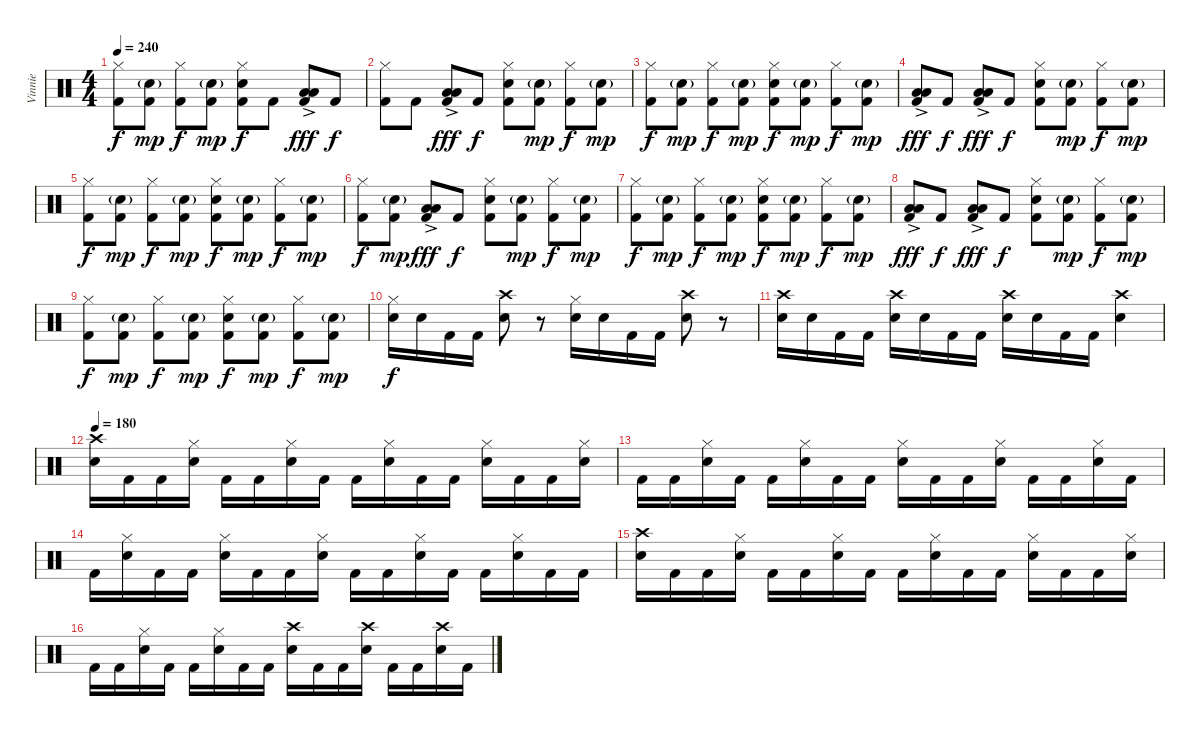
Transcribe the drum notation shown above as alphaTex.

\track ("Vinnie" "Vinnie") {instrument percussion}
\staff {score}
\articulation defaults
\ts (4 4)
\tempo 240
\clef neutral
\ks c
("Hi-Hat (closed)" "Kick (hit) 2").8{dy f} ("Electric Snare (hit)"{g} "Kick (hit) 2").8{dy mp} ("Hi-Hat (closed)" "Kick (hit) 2").8{dy f} ("Electric Snare (hit)"{g} "Kick (hit) 2").8{dy mp} ("Hi-Hat (closed)" "Electric Snare (hit)" "Kick (hit) 2").8{dy f} "Kick (hit) 2".8 ("Low Tom (hit)"{ac} "Low Tom (hit)"{ac} "Kick (hit) 2").8{dy fff} "Kick (hit) 2".8{dy f} |
("Hi-Hat (closed)" "Kick (hit) 2").8 "Kick (hit) 2".8 ("Low Tom (hit)"{ac} "Low Tom (hit)"{ac} "Kick (hit) 2").8{dy fff} "Kick (hit) 2".8{dy f} ("Hi-Hat (closed)" "Electric Snare (hit)" "Kick (hit) 2").8 ("Electric Snare (hit)"{g} "Kick (hit) 2").8{dy mp} ("Hi-Hat (closed)" "Kick (hit) 2").8{dy f} ("Electric Snare (hit)"{g} "Kick (hit) 2").8{dy mp} |
("Hi-Hat (closed)" "Kick (hit) 2").8{dy f} ("Electric Snare (hit)"{g} "Kick (hit) 2").8{dy mp} ("Hi-Hat (closed)" "Kick (hit) 2").8{dy f} ("Electric Snare (hit)"{g} "Kick (hit) 2").8{dy mp} ("Hi-Hat (closed)" "Electric Snare (hit)" "Kick (hit) 2").8{dy f} ("Electric Snare (hit)"{g} "Kick (hit) 2").8{dy mp} ("Hi-Hat (closed)" "Kick (hit) 2").8{dy f} ("Electric Snare (hit)"{g} "Kick (hit) 2").8{dy mp} |
("Low Tom (hit)"{ac} "Low Tom (hit)"{ac} "Kick (hit) 2").8{dy fff} "Kick (hit) 2".8{dy f} ("Low Tom (hit)"{ac} "Low Tom (hit)"{ac} "Kick (hit) 2").8{dy fff} "Kick (hit) 2".8{dy f} ("Hi-Hat (closed)" "Electric Snare (hit)" "Kick (hit) 2").8 ("Electric Snare (hit)"{g} "Kick (hit) 2").8{dy mp} ("Hi-Hat (closed)" "Kick (hit) 2").8{dy f} ("Electric Snare (hit)"{g} "Kick (hit) 2").8{dy mp} |
("Hi-Hat (closed)" "Kick (hit) 2").8{dy f} ("Electric Snare (hit)"{g} "Kick (hit) 2").8{dy mp} ("Hi-Hat (closed)" "Kick (hit) 2").8{dy f} ("Electric Snare (hit)"{g} "Kick (hit) 2").8{dy mp} ("Hi-Hat (closed)" "Electric Snare (hit)" "Kick (hit) 2").8{dy f} ("Electric Snare (hit)"{g} "Kick (hit) 2").8{dy mp} ("Hi-Hat (closed)" "Kick (hit) 2").8{dy f} ("Electric Snare (hit)"{g} "Kick (hit) 2").8{dy mp} |
("Hi-Hat (closed)" "Kick (hit) 2").8{dy f} ("Electric Snare (hit)"{g} "Kick (hit) 2").8{dy mp} ("Low Tom (hit)"{ac} "Low Tom (hit)"{ac} "Kick (hit) 2").8{dy fff} "Kick (hit) 2".8{dy f} ("Hi-Hat (closed)" "Electric Snare (hit)" "Kick (hit) 2").8 ("Electric Snare (hit)"{g} "Kick (hit) 2").8{dy mp} ("Hi-Hat (closed)" "Kick (hit) 2").8{dy f} ("Electric Snare (hit)"{g} "Kick (hit) 2").8{dy mp} |
("Hi-Hat (closed)" "Kick (hit) 2").8{dy f} ("Electric Snare (hit)"{g} "Kick (hit) 2").8{dy mp} ("Hi-Hat (closed)" "Kick (hit) 2").8{dy f} ("Electric Snare (hit)"{g} "Kick (hit) 2").8{dy mp} ("Hi-Hat (closed)" "Electric Snare (hit)" "Kick (hit) 2").8{dy f} ("Electric Snare (hit)"{g} "Kick (hit) 2").8{dy mp} ("Hi-Hat (closed)" "Kick (hit) 2").8{dy f} ("Electric Snare (hit)"{g} "Kick (hit) 2").8{dy mp} |
("Low Tom (hit)"{ac} "Low Tom (hit)"{ac} "Kick (hit) 2").8{dy fff} "Kick (hit) 2".8{dy f} ("Low Tom (hit)"{ac} "Low Tom (hit)"{ac} "Kick (hit) 2").8{dy fff} "Kick (hit) 2".8{dy f} ("Hi-Hat (closed)" "Electric Snare (hit)" "Kick (hit) 2").8 ("Electric Snare (hit)"{g} "Kick (hit) 2").8{dy mp} ("Hi-Hat (closed)" "Kick (hit) 2").8{dy f} ("Electric Snare (hit)"{g} "Kick (hit) 2").8{dy mp} |
("Hi-Hat (closed)" "Kick (hit) 2").8{dy f} ("Electric Snare (hit)"{g} "Kick (hit) 2").8{dy mp} ("Hi-Hat (closed)" "Kick (hit) 2").8{dy f} ("Electric Snare (hit)"{g} "Kick (hit) 2").8{dy mp} ("Hi-Hat (closed)" "Electric Snare (hit)" "Kick (hit) 2").8{dy f} ("Electric Snare (hit)"{g} "Kick (hit) 2").8{dy mp} ("Hi-Hat (closed)" "Kick (hit) 2").8{dy f} ("Electric Snare (hit)"{g} "Kick (hit) 2").8{dy mp} |
("Hi-Hat (closed)" "Electric Snare (hit)").16{dy f} "Electric Snare (hit)".16 "Kick (hit) 2".16 "Kick (hit) 2".16 ("Crash high (hit)" "Electric Snare (hit)").8 r.8 ("Hi-Hat (closed)" "Electric Snare (hit)").16 "Electric Snare (hit)".16 "Kick (hit) 2".16 "Kick (hit) 2".16 ("Crash high (hit)" "Electric Snare (hit)").8 r.8 |
("Crash high (hit)" "Electric Snare (hit)").16 "Electric Snare (hit)".16 "Kick (hit) 2".16 "Kick (hit) 2".16 ("Crash high (hit)" "Electric Snare (hit)").16 "Electric Snare (hit)".16 "Kick (hit) 2".16 "Kick (hit) 2".16 ("Crash high (hit)" "Electric Snare (hit)").16 "Electric Snare (hit)".16 "Kick (hit) 2".16 "Kick (hit) 2".16 ("Crash high (hit)" "Electric Snare (hit)").4 |
\tempo 180
("Crash high (hit)" "Electric Snare (hit)").16 "Kick (hit) 2".16 "Kick (hit) 2".16 ("Hi-Hat (closed)" "Electric Snare (hit)").16 "Kick (hit) 2".16 "Kick (hit) 2".16 ("Hi-Hat (closed)" "Electric Snare (hit)").16 "Kick (hit) 2".16 "Kick (hit) 2".16 ("Hi-Hat (closed)" "Electric Snare (hit)").16 "Kick (hit) 2".16 "Kick (hit) 2".16 ("Hi-Hat (closed)" "Electric Snare (hit)").16 "Kick (hit) 2".16 "Kick (hit) 2".16 ("Hi-Hat (closed)" "Electric Snare (hit)").16 |
"Kick (hit) 2".16 "Kick (hit) 2".16 ("Hi-Hat (closed)" "Electric Snare (hit)").16 "Kick (hit) 2".16 "Kick (hit) 2".16 ("Hi-Hat (closed)" "Electric Snare (hit)").16 "Kick (hit) 2".16 "Kick (hit) 2".16 ("Hi-Hat (closed)" "Electric Snare (hit)").16 "Kick (hit) 2".16 "Kick (hit) 2".16 ("Hi-Hat (closed)" "Electric Snare (hit)").16 "Kick (hit) 2".16 "Kick (hit) 2".16 ("Hi-Hat (closed)" "Electric Snare (hit)").16 "Kick (hit) 2".16 |
"Kick (hit) 2".16 ("Hi-Hat (closed)" "Electric Snare (hit)").16 "Kick (hit) 2".16 "Kick (hit) 2".16 ("Hi-Hat (closed)" "Electric Snare (hit)").16 "Kick (hit) 2".16 "Kick (hit) 2".16 ("Hi-Hat (closed)" "Electric Snare (hit)").16 "Kick (hit) 2".16 "Kick (hit) 2".16 ("Hi-Hat (closed)" "Electric Snare (hit)").16 "Kick (hit) 2".16 "Kick (hit) 2".16 ("Hi-Hat (closed)" "Electric Snare (hit)").16 "Kick (hit) 2".16 "Kick (hit) 2".16 |
("Crash high (hit)" "Electric Snare (hit)").16 "Kick (hit) 2".16 "Kick (hit) 2".16 ("Hi-Hat (closed)" "Electric Snare (hit)").16 "Kick (hit) 2".16 "Kick (hit) 2".16 ("Hi-Hat (closed)" "Electric Snare (hit)").16 "Kick (hit) 2".16 "Kick (hit) 2".16 ("Hi-Hat (closed)" "Electric Snare (hit)").16 "Kick (hit) 2".16 "Kick (hit) 2".16 ("Hi-Hat (closed)" "Electric Snare (hit)").16 "Kick (hit) 2".16 "Kick (hit) 2".16 ("Hi-Hat (closed)" "Electric Snare (hit)").16 |
"Kick (hit) 2".16 "Kick (hit) 2".16 ("Hi-Hat (closed)" "Electric Snare (hit)").16 "Kick (hit) 2".16 "Kick (hit) 2".16 ("Hi-Hat (closed)" "Electric Snare (hit)").16 "Kick (hit) 2".16 "Kick (hit) 2".16 ("Crash high (hit)" "Electric Snare (hit)").16 "Kick (hit) 2".16 "Kick (hit) 2".16 ("Crash high (hit)" "Electric Snare (hit)").16 "Kick (hit) 2".16 "Kick (hit) 2".16 ("Crash high (hit)" "Electric Snare (hit)").16 "Kick (hit) 2".16
